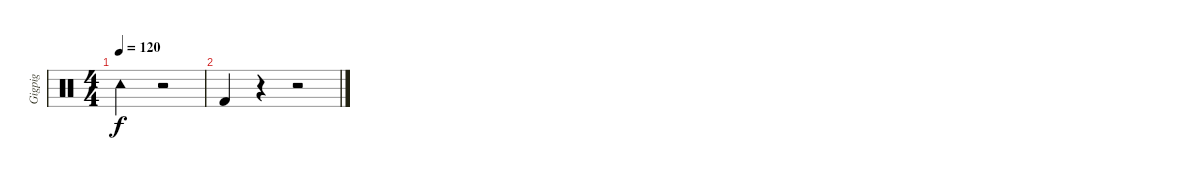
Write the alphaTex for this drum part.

\track ("Gigpig" "Gigpig") {instrument percussion}
\staff {score}
\articulation defaults
\ts (4 4)
\tempo 120
\clef neutral
\ks c "Tambourine (hit)"{t}.2{dy f}
r.2 |
"Kick (hit) 2".4 r.4 r.2
